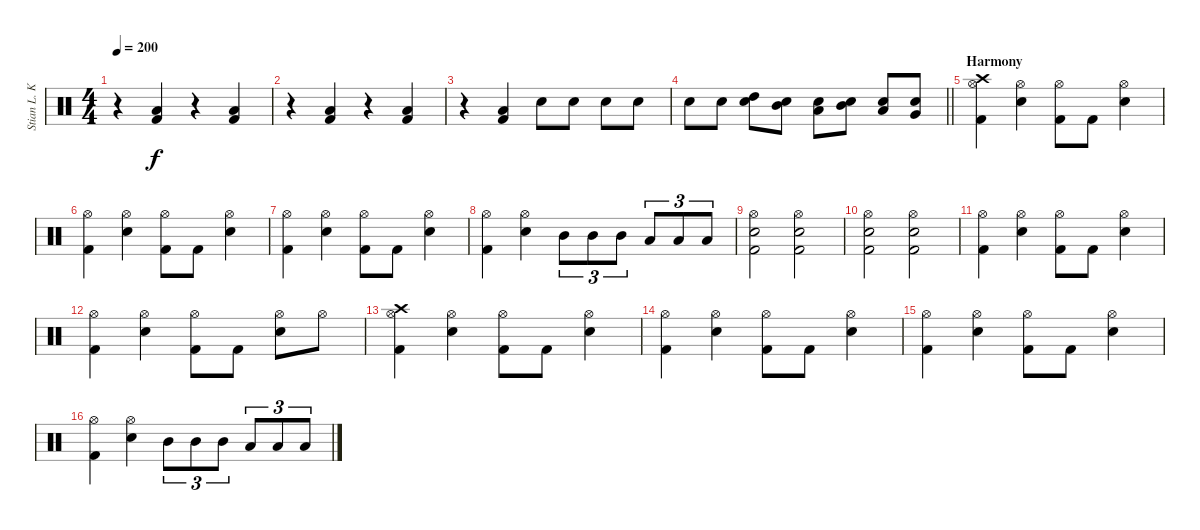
\track ("Stian L. Kristoffersen - Drums" "Stian L. K") {instrument percussion}
\staff {score}
\articulation defaults
\ts (4 4)
\tempo 200
\clef neutral
\ks c
r.4{dy f} ("Low Tom (hit)" "Kick (hit) 2").4 r.4 ("Low Tom (hit)" "Kick (hit) 2").4 |
r.4 ("Low Tom (hit)" "Kick (hit) 2").4 r.4 ("Low Tom (hit)" "Kick (hit) 2").4 |
r.4 ("Low Tom (hit)" "Kick (hit) 2").4 "Electric Snare (hit)".8 "Electric Snare (hit)".8 "Electric Snare (hit)".8 "Electric Snare (hit)".8 |
\barLineRight lightlight "Electric Snare (hit)".8 "Electric Snare (hit)".8
("Electric Snare (hit)" "High Tom (hit)").8 ("Electric Snare (hit)" "Mid Tom (hit)").8 ("Electric Snare (hit)" "Low Tom (hit)").8 ("Electric Snare (hit)" "Mid Tom (hit)").8 ("Electric Snare (hit)" "Low Tom (hit)").8 ("Electric Snare (hit)" "Very Low Tom (hit)").8 |
\section ("" "Harmony")
("Crash high (hit)" "Hi-Hat (open)" "Kick (hit) 2").4 ("Hi-Hat (open)" "Electric Snare (hit)").4 ("Hi-Hat (open)" "Kick (hit) 2").8 "Kick (hit) 2".8 ("Hi-Hat (open)" "Electric Snare (hit)").4 |
("Hi-Hat (open)" "Kick (hit) 2").4 ("Hi-Hat (open)" "Electric Snare (hit)").4 ("Hi-Hat (open)" "Kick (hit) 2").8 "Kick (hit) 2".8 ("Hi-Hat (open)" "Electric Snare (hit)").4 |
("Hi-Hat (open)" "Kick (hit) 2").4 ("Hi-Hat (open)" "Electric Snare (hit)").4 ("Hi-Hat (open)" "Kick (hit) 2").8 "Kick (hit) 2".8 ("Hi-Hat (open)" "Electric Snare (hit)").4 |
("Hi-Hat (open)" "Kick (hit) 2").4 ("Hi-Hat (open)" "Electric Snare (hit)").4 "Mid Tom (hit)".8{tu (3 2)} "Mid Tom (hit)".8{tu (3 2)} "Mid Tom (hit)".8{tu (3 2)} "Low Tom (hit)".8{tu (3 2)} "Low Tom (hit)".8{tu (3 2)} "Low Tom (hit)".8{tu (3 2)} |
("Hi-Hat (open)" "Electric Snare (hit)" "Kick (hit) 2").2 ("Hi-Hat (open)" "Electric Snare (hit)" "Kick (hit) 2").2 |
("Hi-Hat (open)" "Electric Snare (hit)" "Kick (hit) 2").2 ("Hi-Hat (open)" "Electric Snare (hit)" "Kick (hit) 2").2 |
("Hi-Hat (open)" "Kick (hit) 2").4 ("Hi-Hat (open)" "Electric Snare (hit)").4 ("Hi-Hat (open)" "Kick (hit) 2").8 "Kick (hit) 2".8 ("Hi-Hat (open)" "Electric Snare (hit)").4 |
("Hi-Hat (open)" "Kick (hit) 2").4 ("Hi-Hat (open)" "Electric Snare (hit)").4 ("Hi-Hat (open)" "Kick (hit) 2").8 "Kick (hit) 2".8 ("Hi-Hat (open)" "Electric Snare (hit)").8 "Hi-Hat (open)".8 |
("Crash high (hit)" "Hi-Hat (open)" "Kick (hit) 2").4 ("Hi-Hat (open)" "Electric Snare (hit)").4 ("Hi-Hat (open)" "Kick (hit) 2").8 "Kick (hit) 2".8 ("Hi-Hat (open)" "Electric Snare (hit)").4 |
("Hi-Hat (open)" "Kick (hit) 2").4 ("Hi-Hat (open)" "Electric Snare (hit)").4 ("Hi-Hat (open)" "Kick (hit) 2").8 "Kick (hit) 2".8 ("Hi-Hat (open)" "Electric Snare (hit)").4 |
("Hi-Hat (open)" "Kick (hit) 2").4 ("Hi-Hat (open)" "Electric Snare (hit)").4 ("Hi-Hat (open)" "Kick (hit) 2").8 "Kick (hit) 2".8 ("Hi-Hat (open)" "Electric Snare (hit)").4 |
("Hi-Hat (open)" "Kick (hit) 2").4 ("Hi-Hat (open)" "Electric Snare (hit)").4 "Mid Tom (hit)".8{tu (3 2)} "Mid Tom (hit)".8{tu (3 2)} "Mid Tom (hit)".8{tu (3 2)} "Low Tom (hit)".8{tu (3 2)} "Low Tom (hit)".8{tu (3 2)} "Low Tom (hit)".8{tu (3 2)}
